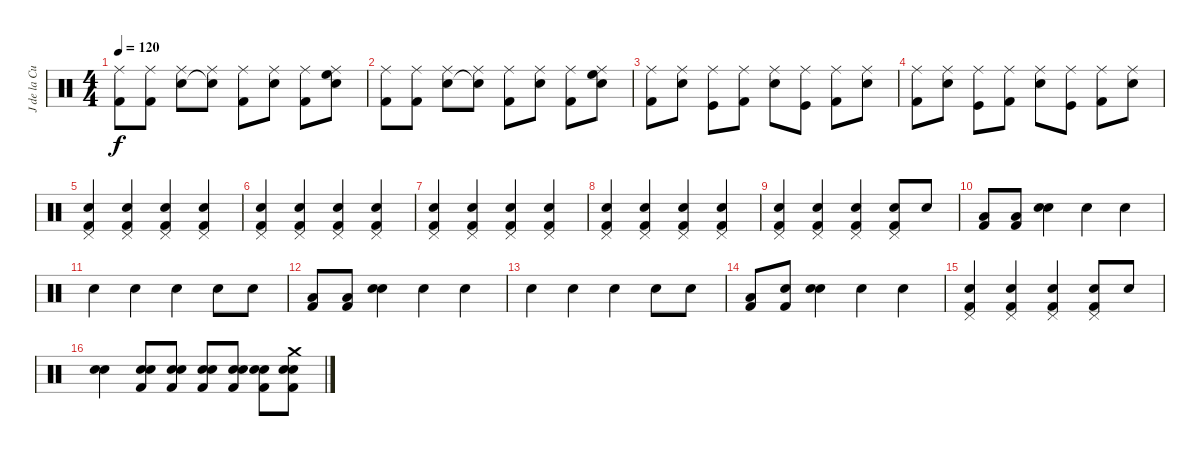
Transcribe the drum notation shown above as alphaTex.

\track ("J de la Cueva" "J de la Cu") {instrument percussion}
\staff {score}
\articulation defaults
\ts (4 4)
\tempo 120
\clef neutral
\ks c
("Ride (middle)" "Kick (hit) 2").8{dy f} ("Ride (middle)" "Kick (hit) 2").8 ("Ride (middle)" "Snare (hit) 2").8 ("Ride (middle)" "Snare (hit) 2"{t}).8 ("Ride (middle)" "Kick (hit) 2").8 ("Ride (middle)" "Snare (hit) 2").8 ("Ride (middle)" "Kick (hit) 2").8 ("Ride (middle)" "High Floor Tom (hit)" "Snare (hit) 2").8 |
("Ride (middle)" "Kick (hit) 2").8 ("Ride (middle)" "Kick (hit) 2").8 ("Ride (middle)" "Snare (hit) 2").8 ("Ride (middle)" "Snare (hit) 2"{t}).8 ("Ride (middle)" "Kick (hit) 2").8 ("Ride (middle)" "Snare (hit) 2").8 ("Ride (middle)" "Kick (hit) 2").8 ("Ride (middle)" "High Floor Tom (hit)" "Snare (hit) 2").8 |
("Ride (middle)" "Kick (hit) 2").8 ("Ride (middle)" "Snare (hit) 2").8 ("Ride (middle)" "Kick (hit)").8 ("Ride (middle)" "Kick (hit) 2").8 ("Ride (middle)" "Snare (hit) 2").8 ("Ride (middle)" "Kick (hit)").8 ("Ride (middle)" "Kick (hit) 2").8 ("Ride (middle)" "Snare (hit) 2").8 |
("Ride (middle)" "Kick (hit) 2").8 ("Ride (middle)" "Snare (hit) 2").8 ("Ride (middle)" "Kick (hit)").8 ("Ride (middle)" "Kick (hit) 2").8 ("Ride (middle)" "Snare (hit) 2").8 ("Ride (middle)" "Kick (hit)").8 ("Ride (middle)" "Kick (hit) 2").8 ("Ride (middle)" "Snare (hit) 2").8 |
("Snare (hit) 2" "Kick (hit) 2" "Pedal Hi-Hat (hit)").4 ("Snare (hit) 2" "Kick (hit) 2" "Pedal Hi-Hat (hit)").4 ("Snare (hit) 2" "Kick (hit) 2" "Pedal Hi-Hat (hit)").4 ("Snare (hit) 2" "Kick (hit) 2" "Pedal Hi-Hat (hit)").4 |
("Snare (hit) 2" "Kick (hit) 2" "Pedal Hi-Hat (hit)").4 ("Snare (hit) 2" "Kick (hit) 2" "Pedal Hi-Hat (hit)").4 ("Snare (hit) 2" "Kick (hit) 2" "Pedal Hi-Hat (hit)").4 ("Snare (hit) 2" "Kick (hit) 2" "Pedal Hi-Hat (hit)").4 |
("Snare (hit) 2" "Kick (hit) 2" "Pedal Hi-Hat (hit)").4 ("Snare (hit) 2" "Kick (hit) 2" "Pedal Hi-Hat (hit)").4 ("Snare (hit) 2" "Kick (hit) 2" "Pedal Hi-Hat (hit)").4 ("Snare (hit) 2" "Kick (hit) 2" "Pedal Hi-Hat (hit)").4 |
("Snare (hit) 2" "Kick (hit) 2" "Pedal Hi-Hat (hit)").4 ("Snare (hit) 2" "Kick (hit) 2" "Pedal Hi-Hat (hit)").4 ("Snare (hit) 2" "Kick (hit) 2" "Pedal Hi-Hat (hit)").4 ("Snare (hit) 2" "Kick (hit) 2" "Pedal Hi-Hat (hit)").4 |
("Snare (hit) 2" "Kick (hit) 2" "Pedal Hi-Hat (hit)").4 ("Snare (hit) 2" "Kick (hit) 2" "Pedal Hi-Hat (hit)").4 ("Snare (hit) 2" "Kick (hit) 2" "Pedal Hi-Hat (hit)").4 ("Snare (hit) 2" "Kick (hit) 2" "Pedal Hi-Hat (hit)").8 "Electric Snare (hit)".8 |
("Low Tom (hit)" "Kick (hit) 2").8 ("Low Tom (hit)" "Kick (hit) 2").8 ("Snare (hit) 2" "Electric Snare (hit)").4 "Snare (hit) 2".4 "Snare (hit) 2".4 |
"Snare (hit) 2".4 "Snare (hit) 2".4 "Snare (hit) 2".4 "Snare (hit) 2".8 "Electric Snare (hit)".8 |
("Low Tom (hit)" "Kick (hit) 2").8 ("Low Tom (hit)" "Kick (hit) 2").8 ("Snare (hit) 2" "Electric Snare (hit)").4 "Snare (hit) 2".4 "Snare (hit) 2".4 |
"Snare (hit) 2".4 "Snare (hit) 2".4 "Snare (hit) 2".4 "Snare (hit) 2".8 "Electric Snare (hit)".8 |
("Low Tom (hit)" "Kick (hit) 2").8 ("Snare (hit)" "Kick (hit) 2").8 ("Snare (hit) 2" "Electric Snare (hit)").4 "Snare (hit) 2".4 "Snare (hit) 2".4 |
("Snare (hit) 2" "Kick (hit) 2" "Pedal Hi-Hat (hit)").4 ("Snare (hit) 2" "Kick (hit) 2" "Pedal Hi-Hat (hit)").4 ("Snare (hit) 2" "Kick (hit) 2" "Pedal Hi-Hat (hit)").4 ("Snare (hit) 2" "Kick (hit) 2" "Pedal Hi-Hat (hit)").8 "Electric Snare (hit)".8 |
("Snare (hit) 2" "Electric Snare (hit)").4 ("Snare (hit) 2" "Electric Snare (hit)" "Kick (hit) 2").8 ("Snare (hit) 2" "Electric Snare (hit)" "Kick (hit) 2").8 ("Snare (hit) 2" "Electric Snare (hit)" "Kick (hit) 2").8 ("Snare (hit) 2" "Electric Snare (hit)" "Kick (hit) 2").8 ("Snare (hit) 2" "Electric Snare (hit)" "Kick (hit) 2").8 ("Crash medium (hit)" "Snare (hit) 2" "Electric Snare (hit)" "Kick (hit) 2").8
